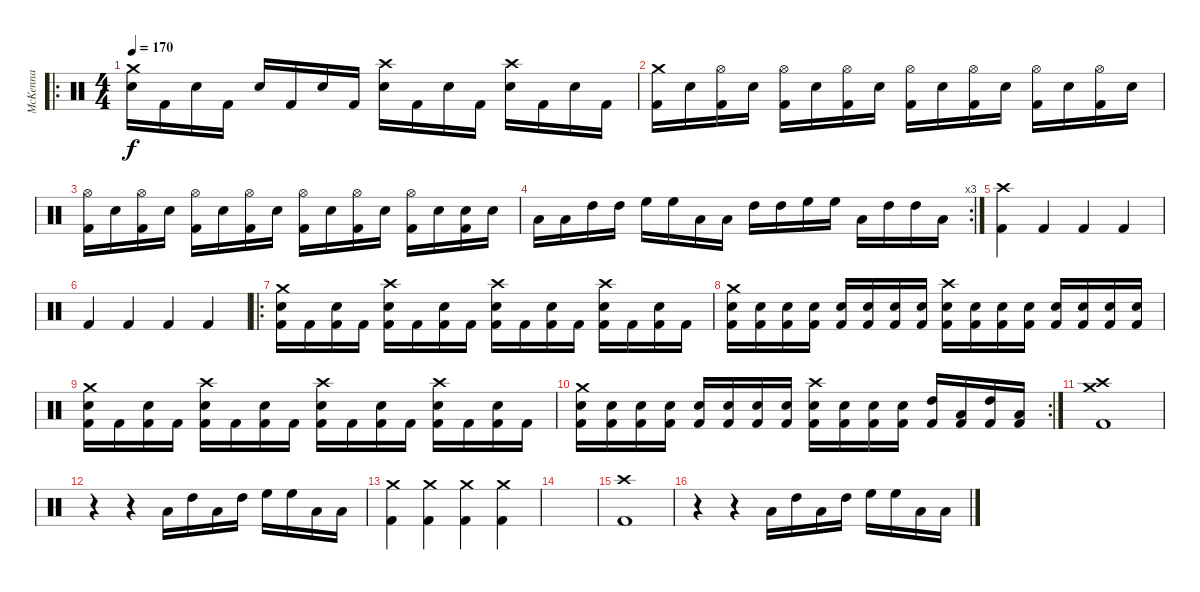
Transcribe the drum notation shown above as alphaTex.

\track ("McKenna" "McKenna") {instrument percussion}
\staff {score}
\articulation defaults
\ro
\ts (4 4)
\tempo 170
\clef neutral
\ks c
("Crash medium (hit)" "Snare (hit) 2").16{dy f} "Kick (hit) 2".16 "Snare (hit) 2".16 "Kick (hit) 2".16 "Snare (hit) 2".16 "Kick (hit) 2".16 "Snare (hit) 2".16 "Kick (hit) 2".16 ("Crash high (hit)" "Snare (hit) 2").16 "Kick (hit) 2".16 "Snare (hit) 2".16 "Kick (hit) 2".16 ("Crash high (hit)" "Snare (hit) 2").16 "Kick (hit) 2".16 "Snare (hit) 2".16 "Kick (hit) 2".16 |
("Crash medium (hit)" "Kick (hit) 2").16 "Snare (hit) 2".16 ("Hi-Hat (open)" "Kick (hit) 2").16 "Snare (hit) 2".16 ("Hi-Hat (open)" "Kick (hit) 2").16 "Snare (hit) 2".16 ("Hi-Hat (open)" "Kick (hit) 2").16 "Snare (hit) 2".16 ("Hi-Hat (open)" "Kick (hit) 2").16 "Snare (hit) 2".16 ("Hi-Hat (open)" "Kick (hit) 2").16 "Snare (hit) 2".16 ("Hi-Hat (open)" "Kick (hit) 2").16 "Snare (hit) 2".16 ("Hi-Hat (open)" "Kick (hit) 2").16 "Snare (hit) 2".16 |
("Hi-Hat (open)" "Kick (hit) 2").16 "Snare (hit) 2".16 ("Hi-Hat (open)" "Kick (hit) 2").16 "Snare (hit) 2".16 ("Hi-Hat (open)" "Kick (hit) 2").16 "Snare (hit) 2".16 ("Hi-Hat (open)" "Kick (hit) 2").16 "Snare (hit) 2".16 ("Hi-Hat (open)" "Kick (hit) 2").16 "Snare (hit) 2".16 ("Hi-Hat (open)" "Kick (hit) 2").16 "Snare (hit) 2".16 ("Hi-Hat (open)" "Kick (hit) 2").16 "Snare (hit) 2".16 ("Snare (hit) 2" "Kick (hit) 2").16 "Snare (hit) 2".16 |
\rc 3 "Low Tom (hit)".16 "Low Tom (hit)".16 "High Tom (hit)".16 "High Tom (hit)".16 "High Floor Tom (hit)".16 "High Floor Tom (hit)".16 "Low Tom (hit)".16 "Low Tom (hit)".16 "High Tom (hit)".16 "High Tom (hit)".16 "High Floor Tom (hit)".16 "High Floor Tom (hit)".16 "Low Tom (hit)".16 "High Tom (hit)".16 "High Tom (hit)".16 "Low Tom (hit)".16
|
("Crash high (hit)" "Kick (hit) 2").4 "Kick (hit) 2".4 "Kick (hit) 2".4 "Kick (hit) 2".4 |
"Kick (hit) 2".4 "Kick (hit) 2".4 "Kick (hit) 2".4 "Kick (hit) 2".4 |
\ro
("Crash medium (hit)" "Snare (hit) 2" "Kick (hit) 2").16 "Kick (hit) 2".16 ("Snare (hit) 2" "Kick (hit) 2").16 "Kick (hit) 2".16 ("Crash high (hit)" "Snare (hit) 2" "Kick (hit) 2").16 "Kick (hit) 2".16 ("Snare (hit) 2" "Kick (hit) 2").16 "Kick (hit) 2".16 ("Crash high (hit)" "Snare (hit) 2" "Kick (hit) 2").16 "Kick (hit) 2".16 ("Snare (hit) 2" "Kick (hit) 2").16 "Kick (hit) 2".16 ("Crash high (hit)" "Snare (hit) 2" "Kick (hit) 2").16 "Kick (hit) 2".16 ("Snare (hit) 2" "Kick (hit) 2").16 "Kick (hit) 2".16 |
("Crash medium (hit)" "Snare (hit) 2" "Kick (hit) 2").16 ("Snare (hit) 2" "Kick (hit) 2").16 ("Snare (hit) 2" "Kick (hit) 2").16 ("Snare (hit) 2" "Kick (hit) 2").16 ("Snare (hit) 2" "Kick (hit) 2").16 ("Snare (hit) 2" "Kick (hit) 2").16 ("Snare (hit) 2" "Kick (hit) 2").16 ("Snare (hit) 2" "Kick (hit) 2").16 ("Crash high (hit)" "Snare (hit) 2" "Kick (hit) 2").16 ("Snare (hit) 2" "Kick (hit) 2").16 ("Snare (hit) 2" "Kick (hit) 2").16 ("Snare (hit) 2" "Kick (hit) 2").16 ("Snare (hit) 2" "Kick (hit) 2").16 ("Snare (hit) 2" "Kick (hit) 2").16 ("Snare (hit) 2" "Kick (hit) 2").16 ("Snare (hit) 2" "Kick (hit) 2").16 |
("Crash medium (hit)" "Snare (hit) 2" "Kick (hit) 2").16 "Kick (hit) 2".16 ("Snare (hit) 2" "Kick (hit) 2").16 "Kick (hit) 2".16 ("Crash high (hit)" "Snare (hit) 2" "Kick (hit) 2").16 "Kick (hit) 2".16 ("Snare (hit) 2" "Kick (hit) 2").16 "Kick (hit) 2".16 ("Crash high (hit)" "Snare (hit) 2" "Kick (hit) 2").16 "Kick (hit) 2".16 ("Snare (hit) 2" "Kick (hit) 2").16 "Kick (hit) 2".16 ("Crash high (hit)" "Snare (hit) 2" "Kick (hit) 2").16 "Kick (hit) 2".16 ("Snare (hit) 2" "Kick (hit) 2").16 "Kick (hit) 2".16 |
\rc 2
("Crash medium (hit)" "Snare (hit) 2" "Kick (hit) 2").16 ("Snare (hit) 2" "Kick (hit) 2").16 ("Snare (hit) 2" "Kick (hit) 2").16 ("Snare (hit) 2" "Kick (hit) 2").16 ("Snare (hit) 2" "Kick (hit) 2").16 ("Snare (hit) 2" "Kick (hit) 2").16 ("Snare (hit) 2" "Kick (hit) 2").16 ("Snare (hit) 2" "Kick (hit) 2").16 ("Crash high (hit)" "Snare (hit) 2" "Kick (hit) 2").16 ("Snare (hit) 2" "Kick (hit) 2").16 ("Snare (hit) 2" "Kick (hit) 2").16 ("Snare (hit) 2" "Kick (hit) 2").16 ("High Tom (hit)" "Kick (hit) 2").16 ("Low Tom (hit)" "Kick (hit) 2").16 ("High Tom (hit)" "Kick (hit) 2").16 ("Low Tom (hit)" "Kick (hit) 2").16 |
("Crash medium (hit)" "Crash high (hit)" "Kick (hit) 2").1 |
r.4 r.4 "Low Tom (hit)".16 "High Tom (hit)".16 "Low Tom (hit)".16 "High Tom (hit)".16 "High Floor Tom (hit)".16 "High Floor Tom (hit)".16 "Low Tom (hit)".16 "Low Tom (hit)".16 |
("Crash medium (hit)" "Kick (hit) 2").4 ("Crash medium (hit)" "Kick (hit) 2").4 ("Crash medium (hit)" "Kick (hit) 2").4 ("Crash medium (hit)" "Kick (hit) 2").4 |
|
("Crash high (hit)" "Kick (hit) 2").1 |
r.4 r.4 "Low Tom (hit)".16 "High Tom (hit)".16 "Low Tom (hit)".16 "High Tom (hit)".16 "High Floor Tom (hit)".16 "High Floor Tom (hit)".16 "Low Tom (hit)".16 "Low Tom (hit)".16
